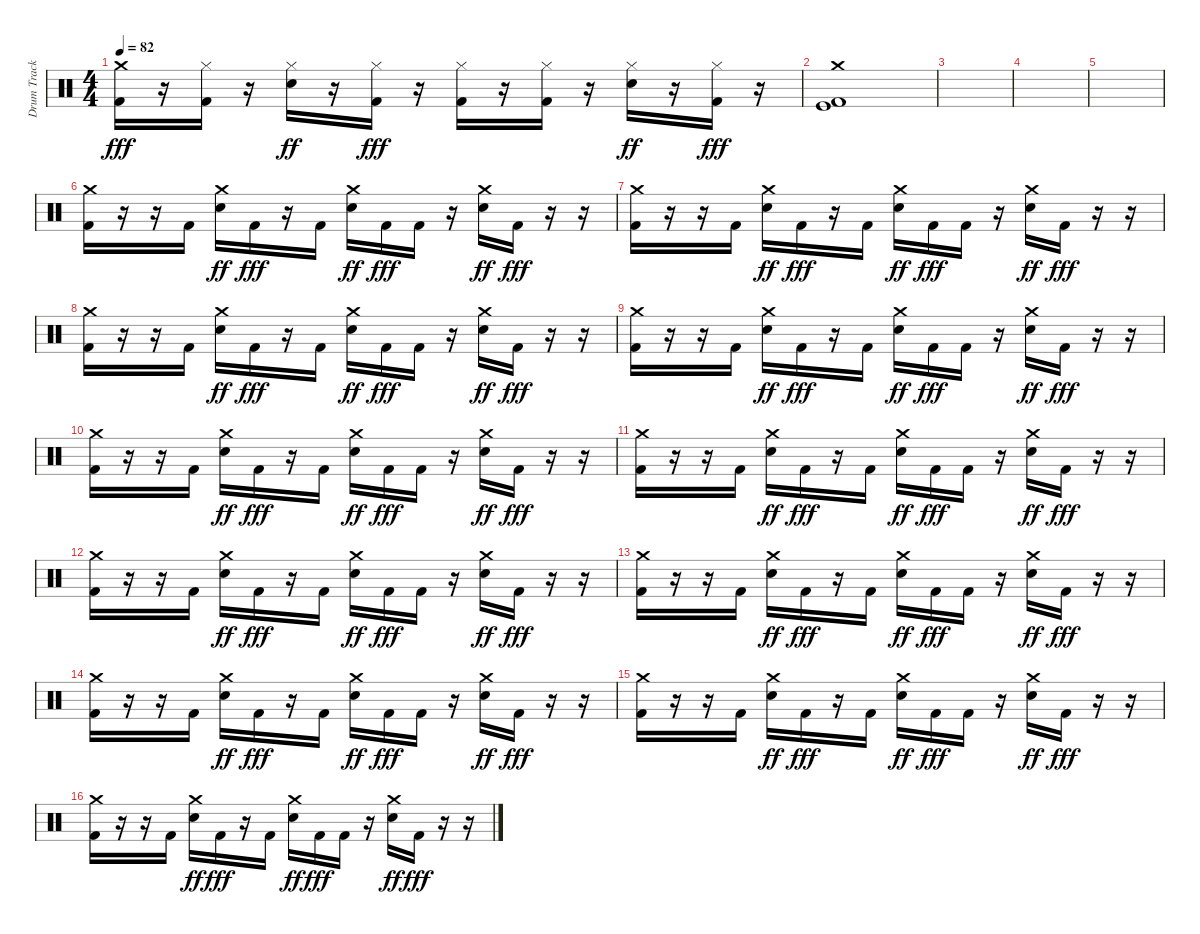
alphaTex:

\track ("Drum Track" "Drum Track") {instrument percussion}
\staff {score}
\articulation defaults
\ts (4 4)
\tempo 82
\clef neutral
\ks c
("Crash medium (hit)" "Kick (hit) 2").16{dy fff} r.16 ("Hi-Hat (closed)" "Kick (hit) 2").16 r.16 ("Hi-Hat (closed)" "Electric Snare (hit)").16{dy ff} r.16 ("Hi-Hat (closed)" "Kick (hit) 2").16{dy fff} r.16 ("Hi-Hat (closed)" "Kick (hit) 2").16 r.16 ("Hi-Hat (closed)" "Kick (hit) 2").16 r.16 ("Hi-Hat (closed)" "Electric Snare (hit)").16{dy ff} r.16 ("Hi-Hat (closed)" "Kick (hit) 2").16{dy fff} r.16 |
("Crash medium (hit)" "Kick (hit)" "Kick (hit) 2").1 |
|
|
|
("Crash medium (hit)" "Kick (hit) 2").16 r.16 r.16 "Kick (hit) 2".16 ("Crash medium (hit)" "Electric Snare (hit)").16{dy ff} "Kick (hit) 2".16{dy fff} r.16 "Kick (hit) 2".16 ("Crash medium (hit)" "Electric Snare (hit)").16{dy ff} "Kick (hit) 2".16{dy fff} "Kick (hit) 2".16 r.16 ("Crash medium (hit)" "Electric Snare (hit)").16{dy ff} "Kick (hit) 2".16{dy fff} r.16 r.16 |
("Crash medium (hit)" "Kick (hit) 2").16 r.16 r.16 "Kick (hit) 2".16 ("Crash medium (hit)" "Electric Snare (hit)").16{dy ff} "Kick (hit) 2".16{dy fff} r.16 "Kick (hit) 2".16 ("Crash medium (hit)" "Electric Snare (hit)").16{dy ff} "Kick (hit) 2".16{dy fff} "Kick (hit) 2".16 r.16 ("Crash medium (hit)" "Electric Snare (hit)").16{dy ff} "Kick (hit) 2".16{dy fff} r.16 r.16 |
("Crash medium (hit)" "Kick (hit) 2").16 r.16 r.16 "Kick (hit) 2".16 ("Crash medium (hit)" "Electric Snare (hit)").16{dy ff} "Kick (hit) 2".16{dy fff} r.16 "Kick (hit) 2".16 ("Crash medium (hit)" "Electric Snare (hit)").16{dy ff} "Kick (hit) 2".16{dy fff} "Kick (hit) 2".16 r.16 ("Crash medium (hit)" "Electric Snare (hit)").16{dy ff} "Kick (hit) 2".16{dy fff} r.16 r.16 |
("Crash medium (hit)" "Kick (hit) 2").16 r.16 r.16 "Kick (hit) 2".16 ("Crash medium (hit)" "Electric Snare (hit)").16{dy ff} "Kick (hit) 2".16{dy fff} r.16 "Kick (hit) 2".16 ("Crash medium (hit)" "Electric Snare (hit)").16{dy ff} "Kick (hit) 2".16{dy fff} "Kick (hit) 2".16 r.16 ("Crash medium (hit)" "Electric Snare (hit)").16{dy ff} "Kick (hit) 2".16{dy fff} r.16 r.16 |
("Crash medium (hit)" "Kick (hit) 2").16 r.16 r.16 "Kick (hit) 2".16 ("Crash medium (hit)" "Electric Snare (hit)").16{dy ff} "Kick (hit) 2".16{dy fff} r.16 "Kick (hit) 2".16 ("Crash medium (hit)" "Electric Snare (hit)").16{dy ff} "Kick (hit) 2".16{dy fff} "Kick (hit) 2".16 r.16 ("Crash medium (hit)" "Electric Snare (hit)").16{dy ff} "Kick (hit) 2".16{dy fff} r.16 r.16 |
("Crash medium (hit)" "Kick (hit) 2").16 r.16 r.16 "Kick (hit) 2".16 ("Crash medium (hit)" "Electric Snare (hit)").16{dy ff} "Kick (hit) 2".16{dy fff} r.16 "Kick (hit) 2".16 ("Crash medium (hit)" "Electric Snare (hit)").16{dy ff} "Kick (hit) 2".16{dy fff} "Kick (hit) 2".16 r.16 ("Crash medium (hit)" "Electric Snare (hit)").16{dy ff} "Kick (hit) 2".16{dy fff} r.16 r.16 |
("Crash medium (hit)" "Kick (hit) 2").16 r.16 r.16 "Kick (hit) 2".16 ("Crash medium (hit)" "Electric Snare (hit)").16{dy ff} "Kick (hit) 2".16{dy fff} r.16 "Kick (hit) 2".16 ("Crash medium (hit)" "Electric Snare (hit)").16{dy ff} "Kick (hit) 2".16{dy fff} "Kick (hit) 2".16 r.16 ("Crash medium (hit)" "Electric Snare (hit)").16{dy ff} "Kick (hit) 2".16{dy fff} r.16 r.16 |
("Crash medium (hit)" "Kick (hit) 2").16 r.16 r.16 "Kick (hit) 2".16 ("Crash medium (hit)" "Electric Snare (hit)").16{dy ff} "Kick (hit) 2".16{dy fff} r.16 "Kick (hit) 2".16 ("Crash medium (hit)" "Electric Snare (hit)").16{dy ff} "Kick (hit) 2".16{dy fff} "Kick (hit) 2".16 r.16 ("Crash medium (hit)" "Electric Snare (hit)").16{dy ff} "Kick (hit) 2".16{dy fff} r.16 r.16 |
("Crash medium (hit)" "Kick (hit) 2").16 r.16 r.16 "Kick (hit) 2".16 ("Crash medium (hit)" "Electric Snare (hit)").16{dy ff} "Kick (hit) 2".16{dy fff} r.16 "Kick (hit) 2".16 ("Crash medium (hit)" "Electric Snare (hit)").16{dy ff} "Kick (hit) 2".16{dy fff} "Kick (hit) 2".16 r.16 ("Crash medium (hit)" "Electric Snare (hit)").16{dy ff} "Kick (hit) 2".16{dy fff} r.16 r.16 |
("Crash medium (hit)" "Kick (hit) 2").16 r.16 r.16 "Kick (hit) 2".16 ("Crash medium (hit)" "Electric Snare (hit)").16{dy ff} "Kick (hit) 2".16{dy fff} r.16 "Kick (hit) 2".16 ("Crash medium (hit)" "Electric Snare (hit)").16{dy ff} "Kick (hit) 2".16{dy fff} "Kick (hit) 2".16 r.16 ("Crash medium (hit)" "Electric Snare (hit)").16{dy ff} "Kick (hit) 2".16{dy fff} r.16 r.16 |
("Crash medium (hit)" "Kick (hit) 2").16 r.16 r.16 "Kick (hit) 2".16 ("Crash medium (hit)" "Electric Snare (hit)").16{dy ff} "Kick (hit) 2".16{dy fff} r.16 "Kick (hit) 2".16 ("Crash medium (hit)" "Electric Snare (hit)").16{dy ff} "Kick (hit) 2".16{dy fff} "Kick (hit) 2".16 r.16 ("Crash medium (hit)" "Electric Snare (hit)").16{dy ff} "Kick (hit) 2".16{dy fff} r.16 r.16
